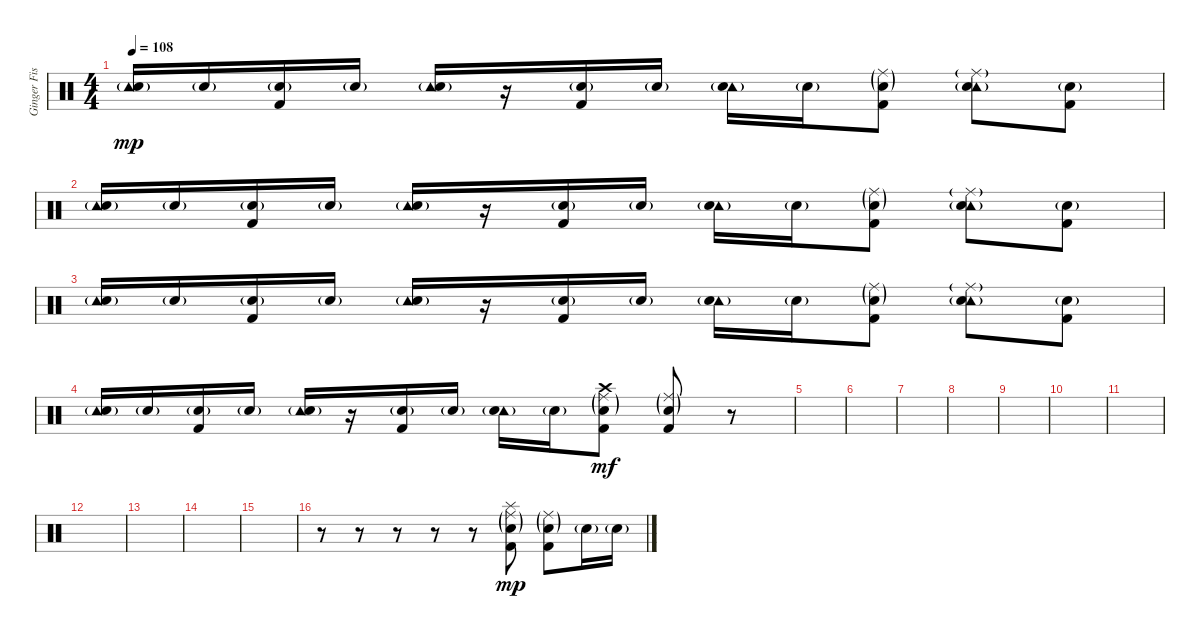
\track ("Ginger Fish" "Ginger Fis") {instrument percussion}
\staff {score}
\articulation defaults
\ts (4 4)
\tempo 108
\clef neutral
\ks c
("Tambourine (hit)" "Electric Snare (hit)"{g}).16{dy mp} "Electric Snare (hit)"{g}.16 ("Electric Snare (hit)"{g} "Kick (hit) 2").16 "Electric Snare (hit)"{g}.16 ("Tambourine (hit)" "Electric Snare (hit)"{g}).16 r.16 ("Electric Snare (hit)"{g} "Kick (hit) 2").16 "Electric Snare (hit)"{g}.16 ("Tambourine (hit)" "Electric Snare (hit)"{g}).16 "Electric Snare (hit)"{g}.16 ("Ride (middle)"{g} "Electric Snare (hit)"{g} "Kick (hit) 2").8 ("Tambourine (hit)" "Ride (middle)"{g} "Electric Snare (hit)"{g}).8 ("Snare (hit) 2"{g} "Kick (hit) 2").8 |
("Tambourine (hit)" "Electric Snare (hit)"{g}).16 "Electric Snare (hit)"{g}.16 ("Electric Snare (hit)"{g} "Kick (hit) 2").16 "Electric Snare (hit)"{g}.16 ("Tambourine (hit)" "Electric Snare (hit)"{g}).16 r.16 ("Electric Snare (hit)"{g} "Kick (hit) 2").16 "Electric Snare (hit)"{g}.16 ("Tambourine (hit)" "Electric Snare (hit)"{g}).16 "Electric Snare (hit)"{g}.16 ("Ride (middle)"{g} "Electric Snare (hit)"{g} "Kick (hit) 2").8 ("Tambourine (hit)" "Ride (middle)"{g} "Electric Snare (hit)"{g}).8 ("Snare (hit) 2"{g} "Kick (hit) 2").8 |
("Tambourine (hit)" "Electric Snare (hit)"{g}).16 "Electric Snare (hit)"{g}.16 ("Electric Snare (hit)"{g} "Kick (hit) 2").16 "Electric Snare (hit)"{g}.16 ("Tambourine (hit)" "Electric Snare (hit)"{g}).16 r.16 ("Electric Snare (hit)"{g} "Kick (hit) 2").16 "Electric Snare (hit)"{g}.16 ("Tambourine (hit)" "Electric Snare (hit)"{g}).16 "Electric Snare (hit)"{g}.16 ("Ride (middle)"{g} "Electric Snare (hit)"{g} "Kick (hit) 2").8 ("Tambourine (hit)" "Ride (middle)"{g} "Electric Snare (hit)"{g}).8 ("Snare (hit) 2"{g} "Kick (hit) 2").8 |
("Tambourine (hit)" "Electric Snare (hit)"{g}).16 "Electric Snare (hit)"{g}.16 ("Electric Snare (hit)"{g} "Kick (hit) 2").16 "Electric Snare (hit)"{g}.16 ("Tambourine (hit)" "Electric Snare (hit)"{g}).16 r.16 ("Electric Snare (hit)"{g} "Kick (hit) 2").16 "Electric Snare (hit)"{g}.16 ("Tambourine (hit)" "Electric Snare (hit)"{g}).16 "Electric Snare (hit)"{g}.16 ("Crash high (hit)" "Ride (middle)"{g} "Snare (hit) 2"{g} "Kick (hit) 2").8{dy mf} ("Ride (middle)"{g} "Snare (hit) 2"{g} "Kick (hit) 2").8 r.8 |
|
|
|
|
|
|
|
|
|
|
|
r.8 r.8 r.8 r.8 r.8 ("Splash (hit)" "Ride (middle)"{g} "Electric Snare (hit)"{g} "Kick (hit) 2").8{dy mp} ("Ride (middle)"{g} "Electric Snare (hit)"{g} "Kick (hit) 2").8 "Electric Snare (hit)"{g}.16 "Electric Snare (hit)"{g}.16
